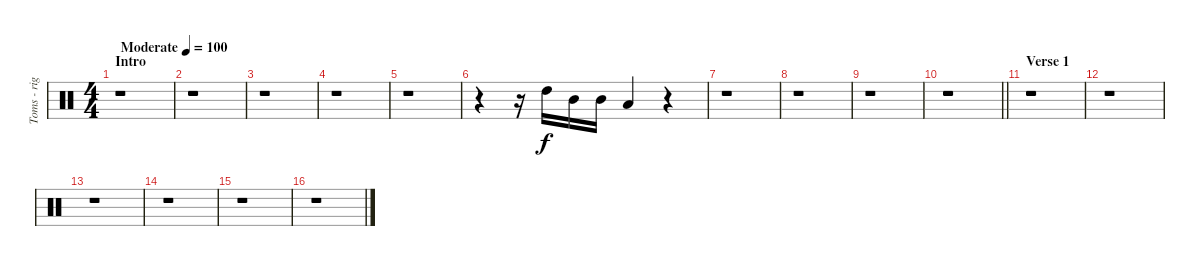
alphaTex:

\track ("Toms - right" "Toms - rig") {instrument percussion}
\staff {score}
\articulation defaults
\ts (4 4)
\section ("" "Intro")
\tempo (100 "Moderate")
\clef neutral
\ks c
r.1{dy f balance 11} |
r.1 |
r.1 |
r.1 |
r.1 |
r.4 r.16 "High Tom (hit)".16 "Mid Tom (hit)".16 "Mid Tom (hit)".16 "Low Tom (hit)".4 r.4 |
r.1 |
r.1 |
r.1 |
\barLineRight lightlight
r.1 |
\section ("" "Verse 1")
r.1 |
r.1 |
r.1 |
r.1 |
r.1 |
r.1
